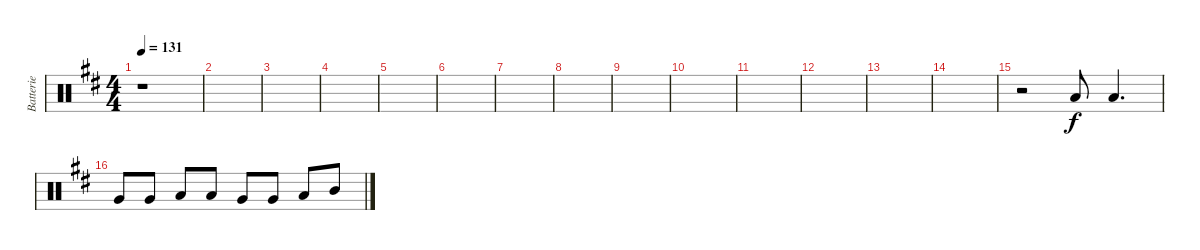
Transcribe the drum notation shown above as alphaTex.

\track ("Batterie" "Batterie") {instrument percussion}
\staff {score}
\articulation defaults
\ts (4 4)
\tempo 131
\clef neutral
\ks d
r.1{dy f} |
|
|
|
|
|
|
|
|
|
|
|
|
|
r.2 "Low Tom (hit)".8 "Low Tom (hit)".4{d} |
"Very Low Tom (hit)".8 "Very Low Tom (hit)".8 "Low Floor Tom (hit)".8 "Low Floor Tom (hit)".8 "Very Low Tom (hit)".8 "Very Low Tom (hit)".8 "Low Tom (hit)".8 "Mid Tom (hit)".8
